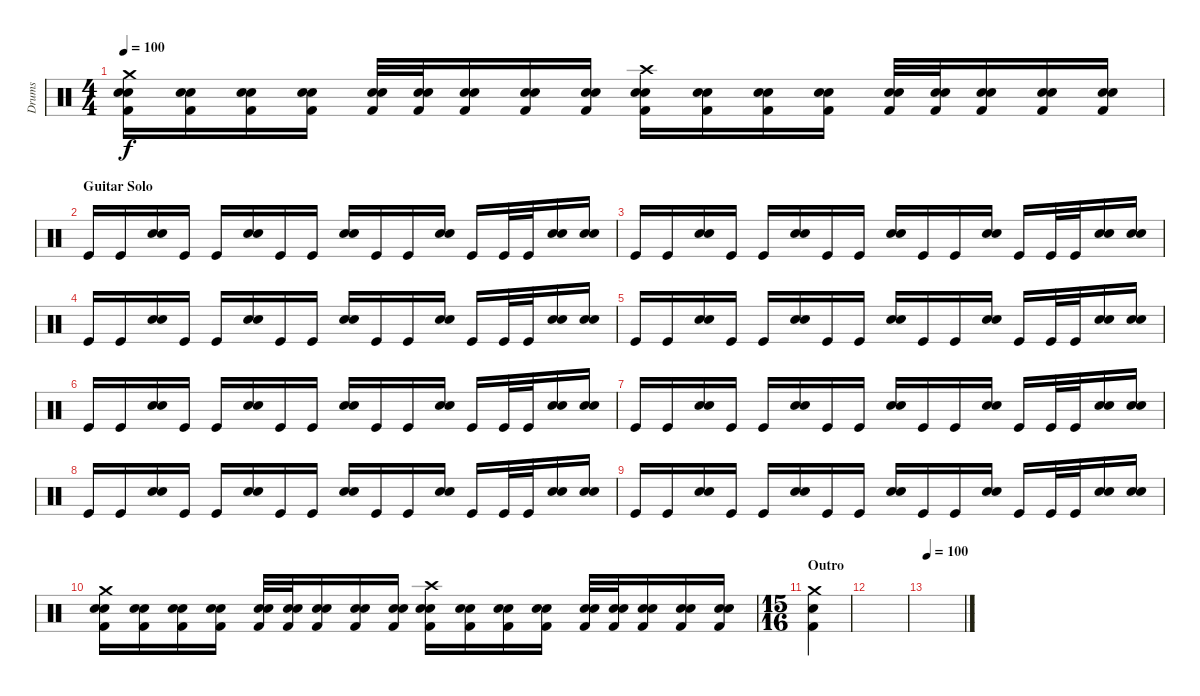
\track ("Drums" "Drums") {instrument percussion}
\staff {score}
\articulation defaults
\ts (4 4)
\tempo 100
\clef neutral
\ks c
("Crash medium (hit)" "Snare (hit) 2" "Electric Snare (hit)" "Kick (hit) 2").16{dy f} ("Snare (hit) 2" "Electric Snare (hit)" "Kick (hit) 2").16 ("Snare (hit) 2" "Electric Snare (hit)" "Kick (hit) 2").16 ("Snare (hit) 2" "Electric Snare (hit)" "Kick (hit) 2").16 ("Snare (hit) 2" "Electric Snare (hit)" "Kick (hit) 2").32 ("Snare (hit) 2" "Electric Snare (hit)" "Kick (hit) 2").32 ("Snare (hit) 2" "Electric Snare (hit)" "Kick (hit) 2").16 ("Snare (hit) 2" "Electric Snare (hit)" "Kick (hit) 2").16 ("Snare (hit) 2" "Electric Snare (hit)" "Kick (hit) 2").16 ("Crash high (hit)" "Snare (hit) 2" "Electric Snare (hit)" "Kick (hit) 2").16 ("Snare (hit) 2" "Electric Snare (hit)" "Kick (hit) 2").16 ("Snare (hit) 2" "Electric Snare (hit)" "Kick (hit) 2").16 ("Snare (hit) 2" "Electric Snare (hit)" "Kick (hit) 2").16 ("Snare (hit) 2" "Electric Snare (hit)" "Kick (hit) 2").32 ("Snare (hit) 2" "Electric Snare (hit)" "Kick (hit) 2").32 ("Snare (hit) 2" "Electric Snare (hit)" "Kick (hit) 2").16 ("Snare (hit) 2" "Electric Snare (hit)" "Kick (hit) 2").16 ("Snare (hit) 2" "Electric Snare (hit)" "Kick (hit) 2").16 |
\section ("" "Guitar Solo   ")
"Kick (hit)".16 "Kick (hit)".16 ("Snare (hit) 2" "Electric Snare (hit)").16 "Kick (hit)".16 "Kick (hit)".16 ("Snare (hit) 2" "Electric Snare (hit)").16 "Kick (hit)".16 "Kick (hit)".16 ("Snare (hit) 2" "Electric Snare (hit)").16 "Kick (hit)".16 "Kick (hit)".16 ("Snare (hit) 2" "Electric Snare (hit)").16 "Kick (hit)".16 "Kick (hit)".32 "Kick (hit)".32 ("Snare (hit) 2" "Electric Snare (hit)").16 ("Snare (hit) 2" "Electric Snare (hit)").16 |
"Kick (hit)".16 "Kick (hit)".16 ("Snare (hit) 2" "Electric Snare (hit)").16 "Kick (hit)".16 "Kick (hit)".16 ("Snare (hit) 2" "Electric Snare (hit)").16 "Kick (hit)".16 "Kick (hit)".16 ("Snare (hit) 2" "Electric Snare (hit)").16 "Kick (hit)".16 "Kick (hit)".16 ("Snare (hit) 2" "Electric Snare (hit)").16 "Kick (hit)".16 "Kick (hit)".32 "Kick (hit)".32 ("Snare (hit) 2" "Electric Snare (hit)").16 ("Snare (hit) 2" "Electric Snare (hit)").16 |
"Kick (hit)".16 "Kick (hit)".16 ("Snare (hit) 2" "Electric Snare (hit)").16 "Kick (hit)".16 "Kick (hit)".16 ("Snare (hit) 2" "Electric Snare (hit)").16 "Kick (hit)".16 "Kick (hit)".16 ("Snare (hit) 2" "Electric Snare (hit)").16 "Kick (hit)".16 "Kick (hit)".16 ("Snare (hit) 2" "Electric Snare (hit)").16 "Kick (hit)".16 "Kick (hit)".32 "Kick (hit)".32 ("Snare (hit) 2" "Electric Snare (hit)").16 ("Snare (hit) 2" "Electric Snare (hit)").16 |
"Kick (hit)".16 "Kick (hit)".16 ("Snare (hit) 2" "Electric Snare (hit)").16 "Kick (hit)".16 "Kick (hit)".16 ("Snare (hit) 2" "Electric Snare (hit)").16 "Kick (hit)".16 "Kick (hit)".16 ("Snare (hit) 2" "Electric Snare (hit)").16 "Kick (hit)".16 "Kick (hit)".16 ("Snare (hit) 2" "Electric Snare (hit)").16 "Kick (hit)".16 "Kick (hit)".32 "Kick (hit)".32 ("Snare (hit) 2" "Electric Snare (hit)").16 ("Snare (hit) 2" "Electric Snare (hit)").16 |
"Kick (hit)".16 "Kick (hit)".16 ("Snare (hit) 2" "Electric Snare (hit)").16 "Kick (hit)".16 "Kick (hit)".16 ("Snare (hit) 2" "Electric Snare (hit)").16 "Kick (hit)".16 "Kick (hit)".16 ("Snare (hit) 2" "Electric Snare (hit)").16 "Kick (hit)".16 "Kick (hit)".16 ("Snare (hit) 2" "Electric Snare (hit)").16 "Kick (hit)".16 "Kick (hit)".32 "Kick (hit)".32 ("Snare (hit) 2" "Electric Snare (hit)").16 ("Snare (hit) 2" "Electric Snare (hit)").16 |
"Kick (hit)".16 "Kick (hit)".16 ("Snare (hit) 2" "Electric Snare (hit)").16 "Kick (hit)".16 "Kick (hit)".16 ("Snare (hit) 2" "Electric Snare (hit)").16 "Kick (hit)".16 "Kick (hit)".16 ("Snare (hit) 2" "Electric Snare (hit)").16 "Kick (hit)".16 "Kick (hit)".16 ("Snare (hit) 2" "Electric Snare (hit)").16 "Kick (hit)".16 "Kick (hit)".32 "Kick (hit)".32 ("Snare (hit) 2" "Electric Snare (hit)").16 ("Snare (hit) 2" "Electric Snare (hit)").16 |
"Kick (hit)".16 "Kick (hit)".16 ("Snare (hit) 2" "Electric Snare (hit)").16 "Kick (hit)".16 "Kick (hit)".16 ("Snare (hit) 2" "Electric Snare (hit)").16 "Kick (hit)".16 "Kick (hit)".16 ("Snare (hit) 2" "Electric Snare (hit)").16 "Kick (hit)".16 "Kick (hit)".16 ("Snare (hit) 2" "Electric Snare (hit)").16 "Kick (hit)".16 "Kick (hit)".32 "Kick (hit)".32 ("Snare (hit) 2" "Electric Snare (hit)").16 ("Snare (hit) 2" "Electric Snare (hit)").16 |
"Kick (hit)".16 "Kick (hit)".16 ("Snare (hit) 2" "Electric Snare (hit)").16 "Kick (hit)".16 "Kick (hit)".16 ("Snare (hit) 2" "Electric Snare (hit)").16 "Kick (hit)".16 "Kick (hit)".16 ("Snare (hit) 2" "Electric Snare (hit)").16 "Kick (hit)".16 "Kick (hit)".16 ("Snare (hit) 2" "Electric Snare (hit)").16 "Kick (hit)".16 "Kick (hit)".32 "Kick (hit)".32 ("Snare (hit) 2" "Electric Snare (hit)").16 ("Snare (hit) 2" "Electric Snare (hit)").16 |
("Crash medium (hit)" "Snare (hit) 2" "Electric Snare (hit)" "Kick (hit) 2").16 ("Snare (hit) 2" "Electric Snare (hit)" "Kick (hit) 2").16 ("Snare (hit) 2" "Electric Snare (hit)" "Kick (hit) 2").16 ("Snare (hit) 2" "Electric Snare (hit)" "Kick (hit) 2").16 ("Snare (hit) 2" "Electric Snare (hit)" "Kick (hit) 2").32 ("Snare (hit) 2" "Electric Snare (hit)" "Kick (hit) 2").32 ("Snare (hit) 2" "Electric Snare (hit)" "Kick (hit) 2").16 ("Snare (hit) 2" "Electric Snare (hit)" "Kick (hit) 2").16 ("Snare (hit) 2" "Electric Snare (hit)" "Kick (hit) 2").16 ("Crash high (hit)" "Snare (hit) 2" "Electric Snare (hit)" "Kick (hit) 2").16 ("Snare (hit) 2" "Electric Snare (hit)" "Kick (hit) 2").16 ("Snare (hit) 2" "Electric Snare (hit)" "Kick (hit) 2").16 ("Snare (hit) 2" "Electric Snare (hit)" "Kick (hit) 2").16 ("Snare (hit) 2" "Electric Snare (hit)" "Kick (hit) 2").32 ("Snare (hit) 2" "Electric Snare (hit)" "Kick (hit) 2").32 ("Snare (hit) 2" "Electric Snare (hit)" "Kick (hit) 2").16 ("Snare (hit) 2" "Electric Snare (hit)" "Kick (hit) 2").16 ("Snare (hit) 2" "Electric Snare (hit)" "Kick (hit) 2").16 |
\ts (15 16)
\section ("" "Outro")
("Crash medium (hit)" "Electric Snare (hit)" "Kick (hit) 2").4 |
|
\tempo 100
